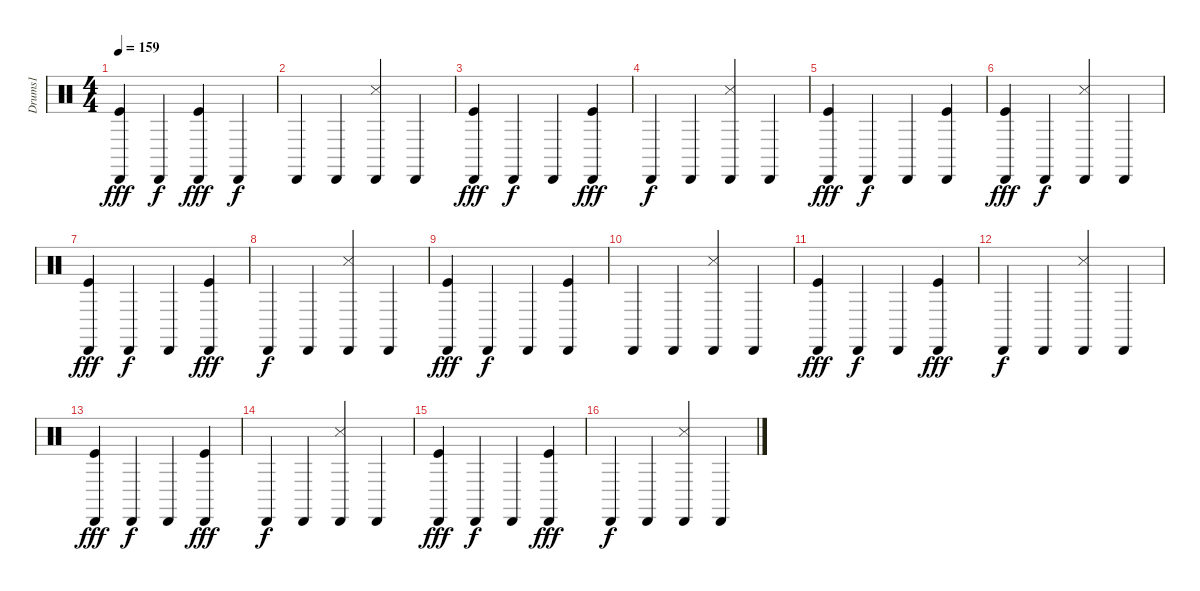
\track ("Drums1" "Drums1") {instrument percussion}
\staff {score}
\articulation defaults
\ts (4 4)
\tempo 159
\clef neutral
\ks c
("Cabasa (hit)" "Kick (hit)").4{dy fff} "Cabasa (hit)".4{dy f} ("Cabasa (hit)" "Kick (hit)").4{dy fff} "Cabasa (hit)".4{dy f} |
"Cabasa (hit)".4 "Cabasa (hit)".4 ("Cabasa (hit)" "Snare (side stick) 3").4 "Cabasa (hit)".4 |
("Cabasa (hit)" "Kick (hit)").4{dy fff} "Cabasa (hit)".4{dy f} "Cabasa (hit)".4 ("Cabasa (hit)" "Kick (hit)").4{dy fff} |
"Cabasa (hit)".4{dy f} "Cabasa (hit)".4 ("Cabasa (hit)" "Snare (side stick) 3").4 "Cabasa (hit)".4 |
("Cabasa (hit)" "Kick (hit)").4{dy fff} "Cabasa (hit)".4{dy f} "Cabasa (hit)".4 ("Cabasa (hit)" "Kick (hit)").4 |
("Kick (hit)" "Cabasa (hit)").4{dy fff} "Cabasa (hit)".4{dy f} ("Cabasa (hit)" "Snare (side stick) 3").4 "Cabasa (hit)".4 |
("Cabasa (hit)" "Kick (hit)").4{dy fff} "Cabasa (hit)".4{dy f} "Cabasa (hit)".4 ("Cabasa (hit)" "Kick (hit)").4{dy fff} |
"Cabasa (hit)".4{dy f} "Cabasa (hit)".4 ("Cabasa (hit)" "Snare (side stick) 3").4 "Cabasa (hit)".4 |
("Cabasa (hit)" "Kick (hit)").4{dy fff} "Cabasa (hit)".4{dy f} "Cabasa (hit)".4 ("Cabasa (hit)" "Kick (hit)").4 |
"Cabasa (hit)".4 "Cabasa (hit)".4 ("Cabasa (hit)" "Snare (side stick) 3").4 "Cabasa (hit)".4 |
("Cabasa (hit)" "Kick (hit)").4{dy fff} "Cabasa (hit)".4{dy f} "Cabasa (hit)".4 ("Cabasa (hit)" "Kick (hit)").4{dy fff} |
"Cabasa (hit)".4{dy f} "Cabasa (hit)".4 ("Cabasa (hit)" "Snare (side stick) 3").4 "Cabasa (hit)".4 |
("Cabasa (hit)" "Kick (hit)").4{dy fff} "Cabasa (hit)".4{dy f} "Cabasa (hit)".4 ("Cabasa (hit)" "Kick (hit)").4{dy fff} |
"Cabasa (hit)".4{dy f} "Cabasa (hit)".4 ("Cabasa (hit)" "Snare (side stick) 3").4 "Cabasa (hit)".4 |
("Cabasa (hit)" "Kick (hit)").4{dy fff} "Cabasa (hit)".4{dy f} "Cabasa (hit)".4 ("Cabasa (hit)" "Kick (hit)").4{dy fff} |
"Cabasa (hit)".4{dy f} "Cabasa (hit)".4 ("Cabasa (hit)" "Snare (side stick) 3").4 "Cabasa (hit)".4
